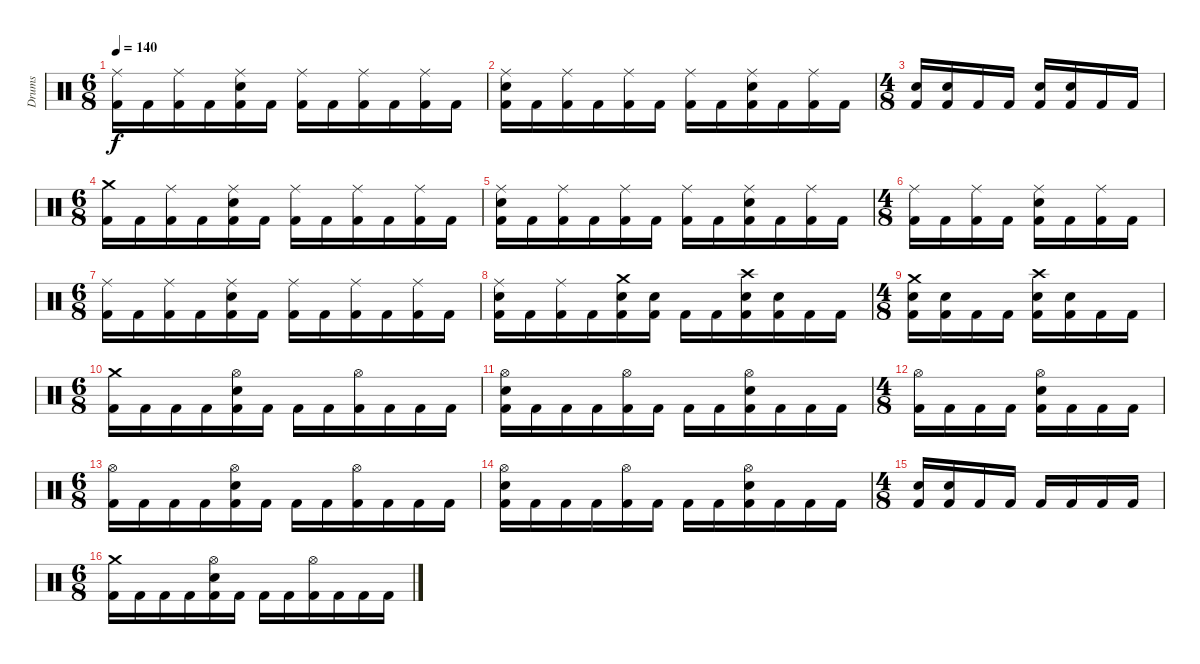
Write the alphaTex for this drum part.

\track ("Drums" "Drums") {instrument percussion}
\staff {score}
\articulation defaults
\ts (6 8)
\tempo 140
\clef neutral
\ks c
("Ride (middle)" "Kick (hit) 2").16{dy f} "Kick (hit) 2".16 ("Ride (middle)" "Kick (hit) 2").16 "Kick (hit) 2".16 ("Ride (middle)" "Electric Snare (hit)" "Kick (hit) 2").16 "Kick (hit) 2".16 ("Ride (middle)" "Kick (hit) 2").16 "Kick (hit) 2".16 ("Ride (middle)" "Kick (hit) 2").16 "Kick (hit) 2".16 ("Ride (middle)" "Kick (hit) 2").16 "Kick (hit) 2".16 |
("Ride (middle)" "Electric Snare (hit)" "Kick (hit) 2").16 "Kick (hit) 2".16 ("Ride (middle)" "Kick (hit) 2").16 "Kick (hit) 2".16 ("Ride (middle)" "Kick (hit) 2").16 "Kick (hit) 2".16 ("Ride (middle)" "Kick (hit) 2").16 "Kick (hit) 2".16 ("Ride (middle)" "Electric Snare (hit)" "Kick (hit) 2").16 "Kick (hit) 2".16 ("Ride (middle)" "Kick (hit) 2").16 "Kick (hit) 2".16 |
\ts (4 8)
("Electric Snare (hit)" "Kick (hit) 2").16 ("Electric Snare (hit)" "Kick (hit) 2").16 "Kick (hit) 2".16 "Kick (hit) 2".16 ("Electric Snare (hit)" "Kick (hit) 2").16 ("Electric Snare (hit)" "Kick (hit) 2").16 "Kick (hit) 2".16 "Kick (hit) 2".16 |
\ts (6 8)
("Crash medium (hit)" "Kick (hit) 2").16 "Kick (hit) 2".16 ("Ride (middle)" "Kick (hit) 2").16 "Kick (hit) 2".16 ("Ride (middle)" "Electric Snare (hit)" "Kick (hit) 2").16 "Kick (hit) 2".16 ("Ride (middle)" "Kick (hit) 2").16 "Kick (hit) 2".16 ("Ride (middle)" "Kick (hit) 2").16 "Kick (hit) 2".16 ("Ride (middle)" "Kick (hit) 2").16 "Kick (hit) 2".16 |
("Ride (middle)" "Electric Snare (hit)" "Kick (hit) 2").16 "Kick (hit) 2".16 ("Ride (middle)" "Kick (hit) 2").16 "Kick (hit) 2".16 ("Ride (middle)" "Kick (hit) 2").16 "Kick (hit) 2".16 ("Ride (middle)" "Kick (hit) 2").16 "Kick (hit) 2".16 ("Ride (middle)" "Electric Snare (hit)" "Kick (hit) 2").16 "Kick (hit) 2".16 ("Ride (middle)" "Kick (hit) 2").16 "Kick (hit) 2".16 |
\ts (4 8)
("Ride (middle)" "Kick (hit) 2").16 "Kick (hit) 2".16 ("Ride (middle)" "Kick (hit) 2").16 "Kick (hit) 2".16 ("Ride (middle)" "Electric Snare (hit)" "Kick (hit) 2").16 "Kick (hit) 2".16 ("Ride (middle)" "Kick (hit) 2").16 "Kick (hit) 2".16 |
\ts (6 8)
("Ride (middle)" "Kick (hit) 2").16 "Kick (hit) 2".16 ("Ride (middle)" "Kick (hit) 2").16 "Kick (hit) 2".16 ("Ride (middle)" "Electric Snare (hit)" "Kick (hit) 2").16 "Kick (hit) 2".16 ("Ride (middle)" "Kick (hit) 2").16 "Kick (hit) 2".16 ("Ride (middle)" "Kick (hit) 2").16 "Kick (hit) 2".16 ("Ride (middle)" "Kick (hit) 2").16 "Kick (hit) 2".16 |
("Ride (middle)" "Electric Snare (hit)" "Kick (hit) 2").16 "Kick (hit) 2".16 ("Ride (middle)" "Kick (hit) 2").16 "Kick (hit) 2".16 ("Crash medium (hit)" "Electric Snare (hit)" "Kick (hit) 2").16 ("Electric Snare (hit)" "Kick (hit) 2").16 "Kick (hit) 2".16 "Kick (hit) 2".16 ("Crash high (hit)" "Electric Snare (hit)" "Kick (hit) 2").16 ("Electric Snare (hit)" "Kick (hit) 2").16 "Kick (hit) 2".16 "Kick (hit) 2".16 |
\ts (4 8)
("Crash medium (hit)" "Electric Snare (hit)" "Kick (hit) 2").16 ("Electric Snare (hit)" "Kick (hit) 2").16 "Kick (hit) 2".16 "Kick (hit) 2".16 ("Crash high (hit)" "Electric Snare (hit)" "Kick (hit) 2").16 ("Electric Snare (hit)" "Kick (hit) 2").16 "Kick (hit) 2".16 "Kick (hit) 2".16 |
\ts (6 8)
\section ("" "")
("Crash medium (hit)" "Kick (hit) 2").16 "Kick (hit) 2".16 "Kick (hit) 2".16 "Kick (hit) 2".16 ("Hi-Hat (open)" "Electric Snare (hit)" "Kick (hit) 2").16 "Kick (hit) 2".16 "Kick (hit) 2".16 "Kick (hit) 2".16 ("Hi-Hat (open)" "Kick (hit) 2").16 "Kick (hit) 2".16 "Kick (hit) 2".16 "Kick (hit) 2".16 |
("Hi-Hat (open)" "Electric Snare (hit)" "Kick (hit) 2").16 "Kick (hit) 2".16 "Kick (hit) 2".16 "Kick (hit) 2".16 ("Hi-Hat (open)" "Kick (hit) 2").16 "Kick (hit) 2".16 "Kick (hit) 2".16 "Kick (hit) 2".16 ("Hi-Hat (open)" "Electric Snare (hit)" "Kick (hit) 2").16 "Kick (hit) 2".16 "Kick (hit) 2".16 "Kick (hit) 2".16 |
\ts (4 8)
("Hi-Hat (open)" "Kick (hit) 2").16 "Kick (hit) 2".16 "Kick (hit) 2".16 "Kick (hit) 2".16 ("Hi-Hat (open)" "Electric Snare (hit)" "Kick (hit) 2").16 "Kick (hit) 2".16 "Kick (hit) 2".16 "Kick (hit) 2".16 |
\ts (6 8)
("Hi-Hat (open)" "Kick (hit) 2").16 "Kick (hit) 2".16 "Kick (hit) 2".16 "Kick (hit) 2".16 ("Hi-Hat (open)" "Electric Snare (hit)" "Kick (hit) 2").16 "Kick (hit) 2".16 "Kick (hit) 2".16 "Kick (hit) 2".16 ("Hi-Hat (open)" "Kick (hit) 2").16 "Kick (hit) 2".16 "Kick (hit) 2".16 "Kick (hit) 2".16 |
("Hi-Hat (open)" "Electric Snare (hit)" "Kick (hit) 2").16 "Kick (hit) 2".16 "Kick (hit) 2".16 "Kick (hit) 2".16 ("Hi-Hat (open)" "Kick (hit) 2").16 "Kick (hit) 2".16 "Kick (hit) 2".16 "Kick (hit) 2".16 ("Hi-Hat (open)" "Electric Snare (hit)" "Kick (hit) 2").16 "Kick (hit) 2".16 "Kick (hit) 2".16 "Kick (hit) 2".16 |
\ts (4 8)
("Electric Snare (hit)" "Kick (hit) 2").16 ("Electric Snare (hit)" "Kick (hit) 2").16 "Kick (hit) 2".16 "Kick (hit) 2".16 "Kick (hit) 2".16 "Kick (hit) 2".16 "Kick (hit) 2".16 "Kick (hit) 2".16 |
\ts (6 8)
("Crash medium (hit)" "Kick (hit) 2").16 "Kick (hit) 2".16 "Kick (hit) 2".16 "Kick (hit) 2".16 ("Hi-Hat (open)" "Electric Snare (hit)" "Kick (hit) 2").16 "Kick (hit) 2".16 "Kick (hit) 2".16 "Kick (hit) 2".16 ("Hi-Hat (open)" "Kick (hit) 2").16 "Kick (hit) 2".16 "Kick (hit) 2".16 "Kick (hit) 2".16
